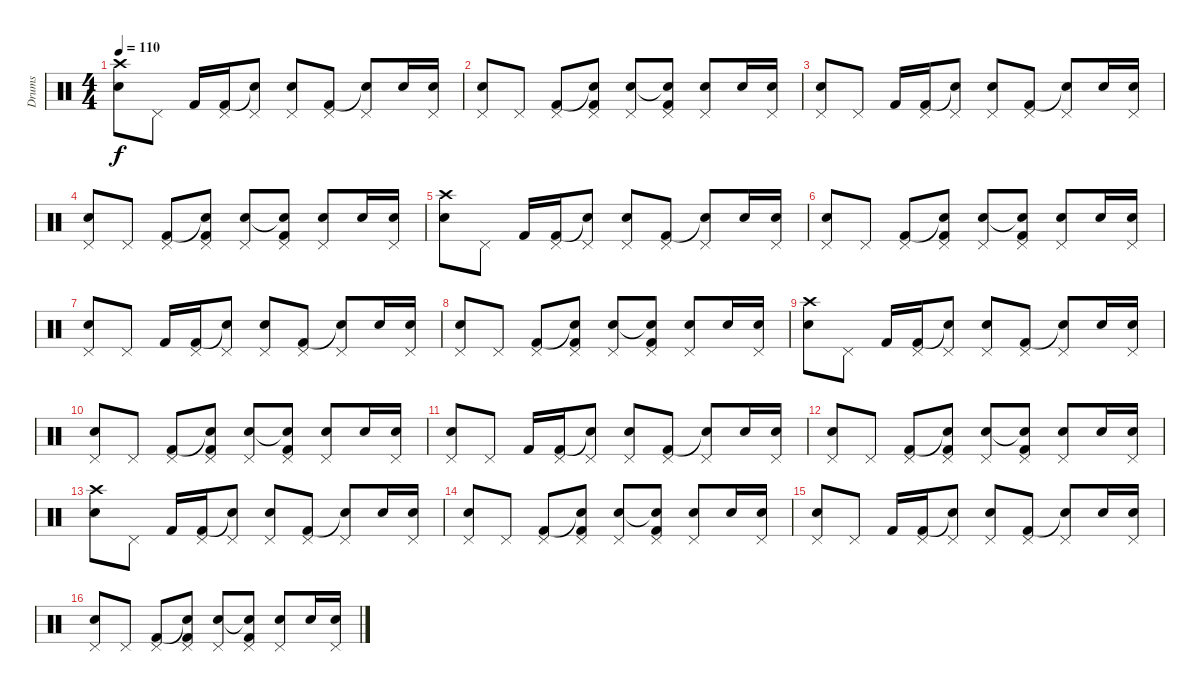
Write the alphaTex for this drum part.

\track ("Drums" "Drums") {instrument percussion}
\staff {score}
\articulation defaults
\ts (4 4)
\tempo 110
\clef neutral
\ks c
("Snare (hit) 2" "Crash high (hit)").8{dy f} "Pedal Hi-Hat (hit)".8 "Kick (hit) 2".16 ("Pedal Hi-Hat (hit)" "Kick (hit) 2").16 ("Pedal Hi-Hat (hit)" "Snare (hit)"{t}).8 ("Pedal Hi-Hat (hit)" "Snare (hit) 2").8 ("Pedal Hi-Hat (hit)" "Kick (hit) 2").8 ("Pedal Hi-Hat (hit)" "Snare (hit)"{t}).8 "Snare (hit) 2".16 ("Pedal Hi-Hat (hit)" "Snare (hit) 2").16 |
("Pedal Hi-Hat (hit)" "Snare (hit) 2").8 "Pedal Hi-Hat (hit)".8 ("Pedal Hi-Hat (hit)" "Kick (hit) 2").8 ("Pedal Hi-Hat (hit)" "Snare (hit)"{t} "Kick (hit) 2").8 ("Pedal Hi-Hat (hit)" "Snare (hit) 2").8 ("Pedal Hi-Hat (hit)" "Snare (hit)"{t} "Kick (hit) 2").8 ("Pedal Hi-Hat (hit)" "Snare (hit) 2").8 "Snare (hit) 2".16 ("Pedal Hi-Hat (hit)" "Snare (hit) 2").16 |
("Pedal Hi-Hat (hit)" "Snare (hit) 2").8 "Pedal Hi-Hat (hit)".8 "Kick (hit) 2".16 ("Pedal Hi-Hat (hit)" "Kick (hit) 2").16 ("Pedal Hi-Hat (hit)" "Snare (hit)"{t}).8 ("Pedal Hi-Hat (hit)" "Snare (hit) 2").8 ("Pedal Hi-Hat (hit)" "Kick (hit) 2").8 ("Pedal Hi-Hat (hit)" "Snare (hit)"{t}).8 "Snare (hit) 2".16 ("Pedal Hi-Hat (hit)" "Snare (hit) 2").16 |
("Pedal Hi-Hat (hit)" "Snare (hit) 2").8 "Pedal Hi-Hat (hit)".8 ("Pedal Hi-Hat (hit)" "Kick (hit) 2").8 ("Pedal Hi-Hat (hit)" "Snare (hit)"{t} "Kick (hit) 2").8 ("Pedal Hi-Hat (hit)" "Snare (hit) 2").8 ("Pedal Hi-Hat (hit)" "Snare (hit)"{t} "Kick (hit) 2").8 ("Pedal Hi-Hat (hit)" "Snare (hit) 2").8 "Snare (hit) 2".16 ("Pedal Hi-Hat (hit)" "Snare (hit) 2").16 |
("Snare (hit) 2" "Crash high (hit)").8 "Pedal Hi-Hat (hit)".8 "Kick (hit) 2".16 ("Pedal Hi-Hat (hit)" "Kick (hit) 2").16 ("Pedal Hi-Hat (hit)" "Snare (hit)"{t}).8 ("Pedal Hi-Hat (hit)" "Snare (hit) 2").8 ("Pedal Hi-Hat (hit)" "Kick (hit) 2").8 ("Pedal Hi-Hat (hit)" "Snare (hit)"{t}).8 "Snare (hit) 2".16 ("Pedal Hi-Hat (hit)" "Snare (hit) 2").16 |
("Pedal Hi-Hat (hit)" "Snare (hit) 2").8 "Pedal Hi-Hat (hit)".8 ("Pedal Hi-Hat (hit)" "Kick (hit) 2").8 ("Pedal Hi-Hat (hit)" "Snare (hit)"{t} "Kick (hit) 2").8 ("Pedal Hi-Hat (hit)" "Snare (hit) 2").8 ("Pedal Hi-Hat (hit)" "Snare (hit)"{t} "Kick (hit) 2").8 ("Pedal Hi-Hat (hit)" "Snare (hit) 2").8 "Snare (hit) 2".16 ("Pedal Hi-Hat (hit)" "Snare (hit) 2").16 |
("Pedal Hi-Hat (hit)" "Snare (hit) 2").8 "Pedal Hi-Hat (hit)".8 "Kick (hit) 2".16 ("Pedal Hi-Hat (hit)" "Kick (hit) 2").16 ("Pedal Hi-Hat (hit)" "Snare (hit)"{t}).8 ("Pedal Hi-Hat (hit)" "Snare (hit) 2").8 ("Pedal Hi-Hat (hit)" "Kick (hit) 2").8 ("Pedal Hi-Hat (hit)" "Snare (hit)"{t}).8 "Snare (hit) 2".16 ("Pedal Hi-Hat (hit)" "Snare (hit) 2").16 |
("Pedal Hi-Hat (hit)" "Snare (hit) 2").8 "Pedal Hi-Hat (hit)".8 ("Pedal Hi-Hat (hit)" "Kick (hit) 2").8 ("Pedal Hi-Hat (hit)" "Snare (hit)"{t} "Kick (hit) 2").8 ("Pedal Hi-Hat (hit)" "Snare (hit) 2").8 ("Pedal Hi-Hat (hit)" "Snare (hit)"{t} "Kick (hit) 2").8 ("Pedal Hi-Hat (hit)" "Snare (hit) 2").8 "Snare (hit) 2".16 ("Pedal Hi-Hat (hit)" "Snare (hit) 2").16 |
("Snare (hit) 2" "Crash high (hit)").8 "Pedal Hi-Hat (hit)".8 "Kick (hit) 2".16 ("Pedal Hi-Hat (hit)" "Kick (hit) 2").16 ("Pedal Hi-Hat (hit)" "Snare (hit)"{t}).8 ("Pedal Hi-Hat (hit)" "Snare (hit) 2").8 ("Pedal Hi-Hat (hit)" "Kick (hit) 2").8 ("Pedal Hi-Hat (hit)" "Snare (hit)"{t}).8 "Snare (hit) 2".16 ("Pedal Hi-Hat (hit)" "Snare (hit) 2").16 |
("Pedal Hi-Hat (hit)" "Snare (hit) 2").8 "Pedal Hi-Hat (hit)".8 ("Pedal Hi-Hat (hit)" "Kick (hit) 2").8 ("Pedal Hi-Hat (hit)" "Snare (hit)"{t} "Kick (hit) 2").8 ("Pedal Hi-Hat (hit)" "Snare (hit) 2").8 ("Pedal Hi-Hat (hit)" "Snare (hit)"{t} "Kick (hit) 2").8 ("Pedal Hi-Hat (hit)" "Snare (hit) 2").8 "Snare (hit) 2".16 ("Pedal Hi-Hat (hit)" "Snare (hit) 2").16 |
("Pedal Hi-Hat (hit)" "Snare (hit) 2").8 "Pedal Hi-Hat (hit)".8 "Kick (hit) 2".16 ("Pedal Hi-Hat (hit)" "Kick (hit) 2").16 ("Pedal Hi-Hat (hit)" "Snare (hit)"{t}).8 ("Pedal Hi-Hat (hit)" "Snare (hit) 2").8 ("Pedal Hi-Hat (hit)" "Kick (hit) 2").8 ("Pedal Hi-Hat (hit)" "Snare (hit)"{t}).8 "Snare (hit) 2".16 ("Pedal Hi-Hat (hit)" "Snare (hit) 2").16 |
("Pedal Hi-Hat (hit)" "Snare (hit) 2").8 "Pedal Hi-Hat (hit)".8 ("Pedal Hi-Hat (hit)" "Kick (hit) 2").8 ("Pedal Hi-Hat (hit)" "Snare (hit)"{t} "Kick (hit) 2").8 ("Pedal Hi-Hat (hit)" "Snare (hit) 2").8 ("Pedal Hi-Hat (hit)" "Snare (hit)"{t} "Kick (hit) 2").8 ("Pedal Hi-Hat (hit)" "Snare (hit) 2").8 "Snare (hit) 2".16 ("Pedal Hi-Hat (hit)" "Snare (hit) 2").16 |
("Snare (hit) 2" "Crash high (hit)").8 "Pedal Hi-Hat (hit)".8 "Kick (hit) 2".16 ("Pedal Hi-Hat (hit)" "Kick (hit) 2").16 ("Pedal Hi-Hat (hit)" "Snare (hit)"{t}).8 ("Pedal Hi-Hat (hit)" "Snare (hit) 2").8 ("Pedal Hi-Hat (hit)" "Kick (hit) 2").8 ("Pedal Hi-Hat (hit)" "Snare (hit)"{t}).8 "Snare (hit) 2".16 ("Pedal Hi-Hat (hit)" "Snare (hit) 2").16 |
("Pedal Hi-Hat (hit)" "Snare (hit) 2").8 "Pedal Hi-Hat (hit)".8 ("Pedal Hi-Hat (hit)" "Kick (hit) 2").8 ("Pedal Hi-Hat (hit)" "Snare (hit)"{t} "Kick (hit) 2").8 ("Pedal Hi-Hat (hit)" "Snare (hit) 2").8 ("Pedal Hi-Hat (hit)" "Snare (hit)"{t} "Kick (hit) 2").8 ("Pedal Hi-Hat (hit)" "Snare (hit) 2").8 "Snare (hit) 2".16 ("Pedal Hi-Hat (hit)" "Snare (hit) 2").16 |
("Pedal Hi-Hat (hit)" "Snare (hit) 2").8 "Pedal Hi-Hat (hit)".8 "Kick (hit) 2".16 ("Pedal Hi-Hat (hit)" "Kick (hit) 2").16 ("Pedal Hi-Hat (hit)" "Snare (hit)"{t}).8 ("Pedal Hi-Hat (hit)" "Snare (hit) 2").8 ("Pedal Hi-Hat (hit)" "Kick (hit) 2").8 ("Pedal Hi-Hat (hit)" "Snare (hit)"{t}).8 "Snare (hit) 2".16 ("Pedal Hi-Hat (hit)" "Snare (hit) 2").16 |
("Pedal Hi-Hat (hit)" "Snare (hit) 2").8 "Pedal Hi-Hat (hit)".8 ("Pedal Hi-Hat (hit)" "Kick (hit) 2").8 ("Pedal Hi-Hat (hit)" "Snare (hit)"{t} "Kick (hit) 2").8 ("Pedal Hi-Hat (hit)" "Snare (hit) 2").8 ("Pedal Hi-Hat (hit)" "Snare (hit)"{t} "Kick (hit) 2").8 ("Pedal Hi-Hat (hit)" "Snare (hit) 2").8 "Snare (hit) 2".16 ("Pedal Hi-Hat (hit)" "Snare (hit) 2").16
